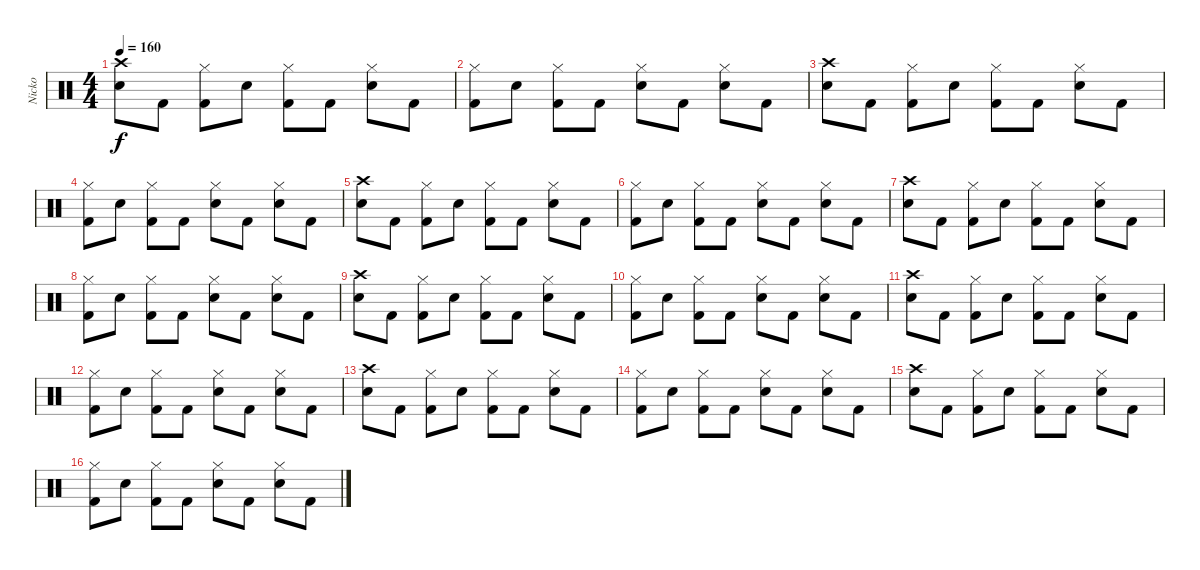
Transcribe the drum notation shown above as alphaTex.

\track ("Nicko" "Nicko") {instrument percussion}
\staff {score}
\articulation defaults
\ts (4 4)
\tempo 160
\clef neutral
\ks c
("Crash high (hit)" "Snare (hit) 2").8{dy f} "Kick (hit) 2".8 ("Hi-Hat (closed)" "Kick (hit) 2").8 "Snare (hit) 2".8 ("Hi-Hat (closed)" "Kick (hit) 2").8 "Kick (hit) 2".8 ("Hi-Hat (closed)" "Snare (hit) 2").8 "Kick (hit) 2".8 |
("Hi-Hat (closed)" "Kick (hit) 2").8 "Snare (hit) 2".8 ("Hi-Hat (closed)" "Kick (hit) 2").8 "Kick (hit) 2".8 ("Hi-Hat (closed)" "Snare (hit) 2").8 "Kick (hit) 2".8 ("Hi-Hat (closed)" "Snare (hit) 2").8 "Kick (hit) 2".8 |
("Crash high (hit)" "Snare (hit) 2").8 "Kick (hit) 2".8 ("Hi-Hat (closed)" "Kick (hit) 2").8 "Snare (hit) 2".8 ("Hi-Hat (closed)" "Kick (hit) 2").8 "Kick (hit) 2".8 ("Hi-Hat (closed)" "Snare (hit) 2").8 "Kick (hit) 2".8 |
("Hi-Hat (closed)" "Kick (hit) 2").8 "Snare (hit) 2".8 ("Hi-Hat (closed)" "Kick (hit) 2").8 "Kick (hit) 2".8 ("Hi-Hat (closed)" "Snare (hit) 2").8 "Kick (hit) 2".8 ("Hi-Hat (closed)" "Snare (hit) 2").8 "Kick (hit) 2".8 |
("Crash high (hit)" "Snare (hit) 2").8 "Kick (hit) 2".8 ("Hi-Hat (closed)" "Kick (hit) 2").8 "Snare (hit) 2".8 ("Hi-Hat (closed)" "Kick (hit) 2").8 "Kick (hit) 2".8 ("Hi-Hat (closed)" "Snare (hit) 2").8 "Kick (hit) 2".8 |
("Hi-Hat (closed)" "Kick (hit) 2").8 "Snare (hit) 2".8 ("Hi-Hat (closed)" "Kick (hit) 2").8 "Kick (hit) 2".8 ("Hi-Hat (closed)" "Snare (hit) 2").8 "Kick (hit) 2".8 ("Hi-Hat (closed)" "Snare (hit) 2").8 "Kick (hit) 2".8 |
("Crash high (hit)" "Snare (hit) 2").8 "Kick (hit) 2".8 ("Hi-Hat (closed)" "Kick (hit) 2").8 "Snare (hit) 2".8 ("Hi-Hat (closed)" "Kick (hit) 2").8 "Kick (hit) 2".8 ("Hi-Hat (closed)" "Snare (hit) 2").8 "Kick (hit) 2".8 |
("Hi-Hat (closed)" "Kick (hit) 2").8 "Snare (hit) 2".8 ("Hi-Hat (closed)" "Kick (hit) 2").8 "Kick (hit) 2".8 ("Hi-Hat (closed)" "Snare (hit) 2").8 "Kick (hit) 2".8 ("Hi-Hat (closed)" "Snare (hit) 2").8 "Kick (hit) 2".8 |
("Crash high (hit)" "Snare (hit) 2").8 "Kick (hit) 2".8 ("Hi-Hat (closed)" "Kick (hit) 2").8 "Snare (hit) 2".8 ("Hi-Hat (closed)" "Kick (hit) 2").8 "Kick (hit) 2".8 ("Hi-Hat (closed)" "Snare (hit) 2").8 "Kick (hit) 2".8 |
("Hi-Hat (closed)" "Kick (hit) 2").8 "Snare (hit) 2".8 ("Hi-Hat (closed)" "Kick (hit) 2").8 "Kick (hit) 2".8 ("Hi-Hat (closed)" "Snare (hit) 2").8 "Kick (hit) 2".8 ("Hi-Hat (closed)" "Snare (hit) 2").8 "Kick (hit) 2".8 |
("Crash high (hit)" "Snare (hit) 2").8 "Kick (hit) 2".8 ("Hi-Hat (closed)" "Kick (hit) 2").8 "Snare (hit) 2".8 ("Hi-Hat (closed)" "Kick (hit) 2").8 "Kick (hit) 2".8 ("Hi-Hat (closed)" "Snare (hit) 2").8 "Kick (hit) 2".8 |
("Hi-Hat (closed)" "Kick (hit) 2").8 "Snare (hit) 2".8 ("Hi-Hat (closed)" "Kick (hit) 2").8 "Kick (hit) 2".8 ("Hi-Hat (closed)" "Snare (hit) 2").8 "Kick (hit) 2".8 ("Hi-Hat (closed)" "Snare (hit) 2").8 "Kick (hit) 2".8 |
("Crash high (hit)" "Snare (hit) 2").8 "Kick (hit) 2".8 ("Hi-Hat (closed)" "Kick (hit) 2").8 "Snare (hit) 2".8 ("Hi-Hat (closed)" "Kick (hit) 2").8 "Kick (hit) 2".8 ("Hi-Hat (closed)" "Snare (hit) 2").8 "Kick (hit) 2".8 |
("Hi-Hat (closed)" "Kick (hit) 2").8 "Snare (hit) 2".8 ("Hi-Hat (closed)" "Kick (hit) 2").8 "Kick (hit) 2".8 ("Hi-Hat (closed)" "Snare (hit) 2").8 "Kick (hit) 2".8 ("Hi-Hat (closed)" "Snare (hit) 2").8 "Kick (hit) 2".8 |
("Crash high (hit)" "Snare (hit) 2").8 "Kick (hit) 2".8 ("Hi-Hat (closed)" "Kick (hit) 2").8 "Snare (hit) 2".8 ("Hi-Hat (closed)" "Kick (hit) 2").8 "Kick (hit) 2".8 ("Hi-Hat (closed)" "Snare (hit) 2").8 "Kick (hit) 2".8 |
("Hi-Hat (closed)" "Kick (hit) 2").8 "Snare (hit) 2".8 ("Hi-Hat (closed)" "Kick (hit) 2").8 "Kick (hit) 2".8 ("Hi-Hat (closed)" "Snare (hit) 2").8 "Kick (hit) 2".8 ("Hi-Hat (closed)" "Snare (hit) 2").8 "Kick (hit) 2".8
